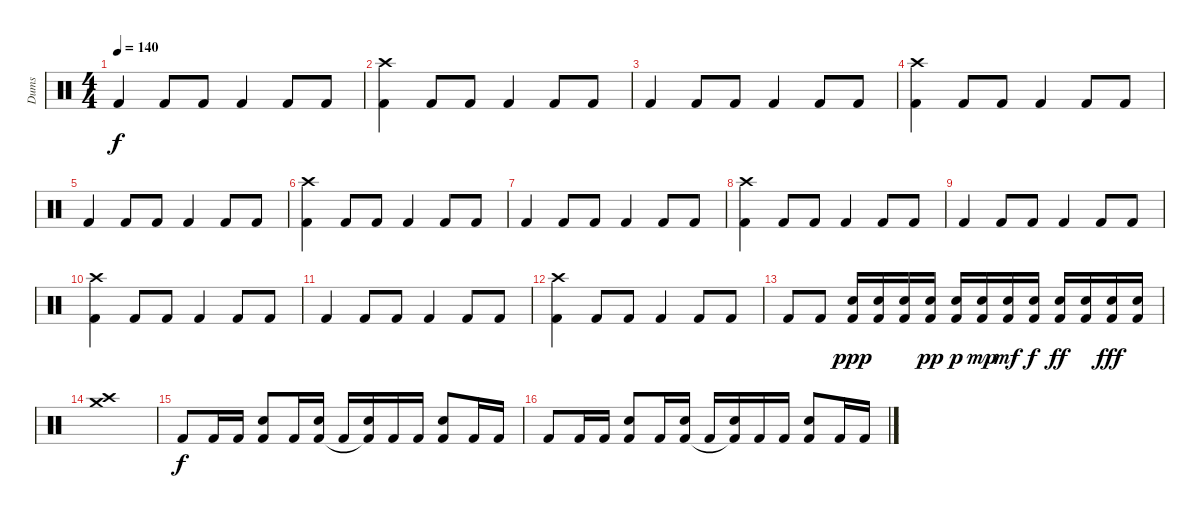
\track ("Dums" "Dums") {instrument percussion}
\staff {score}
\articulation defaults
\ts (4 4)
\tempo 140
\clef neutral
\ks c "Kick (hit) 2".4{dy f} "Kick (hit) 2".8 "Kick (hit) 2".8 "Kick (hit) 2".4 "Kick (hit) 2".8 "Kick (hit) 2".8
|
("Crash high (hit)" "Kick (hit) 2").4 "Kick (hit) 2".8 "Kick (hit) 2".8 "Kick (hit) 2".4 "Kick (hit) 2".8 "Kick (hit) 2".8 |
"Kick (hit) 2".4 "Kick (hit) 2".8 "Kick (hit) 2".8 "Kick (hit) 2".4 "Kick (hit) 2".8 "Kick (hit) 2".8 |
("Crash high (hit)" "Kick (hit) 2").4 "Kick (hit) 2".8 "Kick (hit) 2".8 "Kick (hit) 2".4 "Kick (hit) 2".8 "Kick (hit) 2".8 |
"Kick (hit) 2".4 "Kick (hit) 2".8 "Kick (hit) 2".8 "Kick (hit) 2".4 "Kick (hit) 2".8 "Kick (hit) 2".8 |
("Crash high (hit)" "Kick (hit) 2").4 "Kick (hit) 2".8 "Kick (hit) 2".8 "Kick (hit) 2".4 "Kick (hit) 2".8 "Kick (hit) 2".8 |
"Kick (hit) 2".4 "Kick (hit) 2".8 "Kick (hit) 2".8 "Kick (hit) 2".4 "Kick (hit) 2".8 "Kick (hit) 2".8 |
("Crash high (hit)" "Kick (hit) 2").4 "Kick (hit) 2".8 "Kick (hit) 2".8 "Kick (hit) 2".4 "Kick (hit) 2".8 "Kick (hit) 2".8 |
"Kick (hit) 2".4 "Kick (hit) 2".8 "Kick (hit) 2".8 "Kick (hit) 2".4 "Kick (hit) 2".8 "Kick (hit) 2".8 |
("Crash high (hit)" "Kick (hit) 2").4 "Kick (hit) 2".8 "Kick (hit) 2".8 "Kick (hit) 2".4 "Kick (hit) 2".8 "Kick (hit) 2".8 |
"Kick (hit) 2".4 "Kick (hit) 2".8 "Kick (hit) 2".8 "Kick (hit) 2".4 "Kick (hit) 2".8 "Kick (hit) 2".8 |
("Crash high (hit)" "Kick (hit) 2").4 "Kick (hit) 2".8 "Kick (hit) 2".8 "Kick (hit) 2".4 "Kick (hit) 2".8 "Kick (hit) 2".8 |
"Kick (hit) 2".8 "Kick (hit) 2".8 ("Snare (hit) 2" "Kick (hit) 2").16{dy ppp} ("Snare (hit) 2" "Kick (hit) 2").16 ("Snare (hit) 2" "Kick (hit) 2").16 ("Snare (hit) 2" "Kick (hit) 2").16{dy pp} ("Snare (hit) 2" "Kick (hit) 2").16{dy p} ("Snare (hit) 2" "Kick (hit) 2").16{dy mp} ("Snare (hit) 2" "Kick (hit) 2").16{dy mf} ("Snare (hit) 2" "Kick (hit) 2").16{dy f} ("Snare (hit) 2" "Kick (hit) 2").16{dy ff} ("Snare (hit) 2" "Kick (hit) 2").16 ("Snare (hit) 2" "Kick (hit) 2").16{dy fff} ("Snare (hit) 2" "Kick (hit) 2").16 |
("Crash medium (hit)" "Crash high (hit)").1 |
"Kick (hit) 2".8{dy f} "Kick (hit) 2".16 "Kick (hit) 2".16 ("Snare (hit) 2" "Kick (hit) 2").8 "Kick (hit) 2".16 ("Snare (hit) 2" "Kick (hit) 2").16 "Kick (hit) 2".16 ("Snare (hit) 2" "Kick (hit) 2"{t}).16 "Kick (hit) 2".16 "Kick (hit) 2".16 ("Snare (hit) 2" "Kick (hit) 2").8 "Kick (hit) 2".16 "Kick (hit) 2".16 |
"Kick (hit) 2".8 "Kick (hit) 2".16 "Kick (hit) 2".16 ("Snare (hit) 2" "Kick (hit) 2").8 "Kick (hit) 2".16 ("Snare (hit) 2" "Kick (hit) 2").16 "Kick (hit) 2".16 ("Snare (hit) 2" "Kick (hit) 2"{t}).16 "Kick (hit) 2".16 "Kick (hit) 2".16 ("Snare (hit) 2" "Kick (hit) 2").8 "Kick (hit) 2".16 "Kick (hit) 2".16
